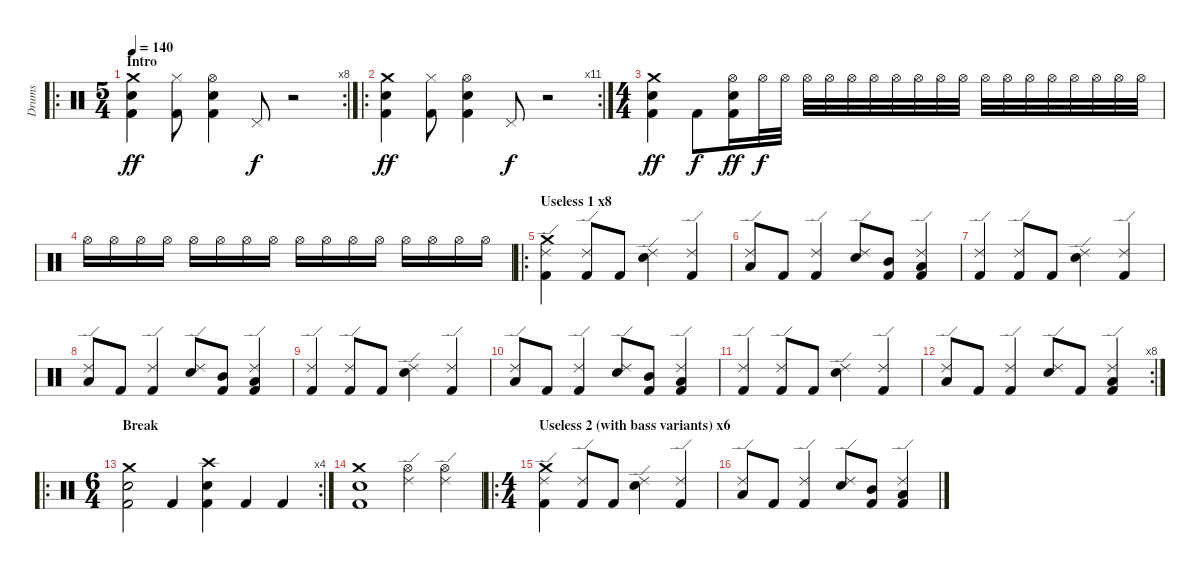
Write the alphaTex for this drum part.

\track ("Drums" "Drums") {instrument percussion}
\staff {score}
\articulation defaults
\ro
\rc 8
\ts (5 4)
\section ("" "Intro")
\tempo 140
\clef neutral
\ks c
("Crash medium (hit)" "Snare (hit) 2" "Kick (hit) 2").4{dy ff} ("Hi-Hat (closed)" "Kick (hit) 2").8 ("Hi-Hat (open)" "Snare (hit) 2" "Kick (hit) 2").4 "Pedal Hi-Hat (hit)".8{dy f} r.2 |
\ro
\rc 11
("Crash medium (hit)" "Snare (hit) 2" "Kick (hit) 2").4{dy ff} ("Hi-Hat (closed)" "Kick (hit) 2").8 ("Hi-Hat (open)" "Snare (hit) 2" "Kick (hit) 2").4 "Pedal Hi-Hat (hit)".8{dy f} r.2 |
\ts (4 4)
("Crash medium (hit)" "Snare (hit) 2" "Kick (hit) 2").4{dy ff} "Kick (hit) 2".8{dy f} ("Hi-Hat (open)" "Snare (hit) 2" "Kick (hit) 2").16{dy ff} "Hi-Hat (open)".32{dy f} "Hi-Hat (open)".32 "Hi-Hat (open)".32 "Hi-Hat (open)".32 "Hi-Hat (open)".32 "Hi-Hat (open)".32 "Hi-Hat (open)".32 "Hi-Hat (open)".32 "Hi-Hat (open)".32 "Hi-Hat (open)".32 "Hi-Hat (open)".32 "Hi-Hat (open)".32 "Hi-Hat (open)".32 "Hi-Hat (open)".32 "Hi-Hat (open)".32 "Hi-Hat (open)".32 "Hi-Hat (open)".32 "Hi-Hat (open)".32 |
"Hi-Hat (open)".16 "Hi-Hat (open)".16 "Hi-Hat (open)".16 "Hi-Hat (open)".16 "Hi-Hat (open)".16 "Hi-Hat (open)".16 "Hi-Hat (open)".16 "Hi-Hat (open)".16 "Hi-Hat (open)".16 "Hi-Hat (open)".16 "Hi-Hat (open)".16 "Hi-Hat (open)".16 "Hi-Hat (open)".16 "Hi-Hat (open)".16 "Hi-Hat (open)".16 "Hi-Hat (open)".16 |
\ro
\section ("" "Useless 1 x8")
("Ride (edge) 2" "Crash medium (hit)" "Kick (hit) 2").4 ("Ride (edge) 2" "Kick (hit) 2").8 "Kick (hit) 2".8 ("Ride (edge) 2" "Snare (hit) 2").4 ("Ride (edge) 2" "Kick (hit) 2").4 |
("Ride (edge) 2" "Low Tom (hit)").8 "Kick (hit) 2".8 ("Ride (edge) 2" "Kick (hit) 2").4 ("Ride (edge) 2" "Snare (hit) 2").8 ("Mid Tom (hit)" "Kick (hit) 2").8 ("Ride (edge) 2" "Low Tom (hit)" "Kick (hit) 2").4 |
("Ride (edge) 2" "Kick (hit) 2").4 ("Ride (edge) 2" "Kick (hit) 2").8 "Kick (hit) 2".8 ("Ride (edge) 2" "Snare (hit) 2").4 ("Ride (edge) 2" "Kick (hit) 2").4 |
("Ride (edge) 2" "Low Tom (hit)").8 "Kick (hit) 2".8 ("Ride (edge) 2" "Kick (hit) 2").4 ("Ride (edge) 2" "Snare (hit) 2").8 ("Mid Tom (hit)" "Kick (hit) 2").8 ("Ride (edge) 2" "Low Tom (hit)" "Kick (hit) 2").4 |
("Ride (edge) 2" "Kick (hit) 2").4 ("Ride (edge) 2" "Kick (hit) 2").8 "Kick (hit) 2".8 ("Ride (edge) 2" "Snare (hit) 2").4 ("Ride (edge) 2" "Kick (hit) 2").4 |
("Ride (edge) 2" "Low Tom (hit)").8 "Kick (hit) 2".8 ("Ride (edge) 2" "Kick (hit) 2").4 ("Ride (edge) 2" "Snare (hit) 2").8 ("Mid Tom (hit)" "Kick (hit) 2").8 ("Ride (edge) 2" "Low Tom (hit)" "Kick (hit) 2").4 |
("Ride (edge) 2" "Kick (hit) 2").4 ("Ride (edge) 2" "Kick (hit) 2").8 "Kick (hit) 2".8 ("Ride (edge) 2" "Snare (hit) 2").4 ("Ride (edge) 2" "Kick (hit) 2").4 |
\rc 8
("Ride (edge) 2" "Low Tom (hit)").8 "Kick (hit) 2".8 ("Ride (edge) 2" "Kick (hit) 2").4 ("Ride (edge) 2" "Snare (hit) 2").8 "Kick (hit) 2".8 ("Ride (edge) 2" "Low Tom (hit)" "Kick (hit) 2").4 |
\ro
\rc 4
\ts (6 4)
\section ("" "Break")
("Crash medium (hit)" "Snare (hit) 2" "Kick (hit) 2").2 "Kick (hit) 2".4 ("Crash high (hit)" "Snare (hit) 2" "Kick (hit) 2").4 "Kick (hit) 2".4 "Kick (hit) 2".4 |
("Crash medium (hit)" "Snare (hit) 2" "Kick (hit) 2").1 ("Ride (edge) 2" "Hi-Hat (open)").4 ("Ride (edge) 2" "Hi-Hat (open)").4 |
\ro
\ts (4 4)
\section ("" "Useless 2 (with bass variants) x6")
("Ride (edge) 2" "Crash medium (hit)" "Kick (hit) 2").4 ("Ride (edge) 2" "Kick (hit) 2").8 "Kick (hit) 2".8 ("Ride (edge) 2" "Snare (hit) 2").4 ("Ride (edge) 2" "Kick (hit) 2").4 |
("Ride (edge) 2" "Low Tom (hit)").8 "Kick (hit) 2".8 ("Ride (edge) 2" "Kick (hit) 2").4 ("Ride (edge) 2" "Snare (hit) 2").8 ("Mid Tom (hit)" "Kick (hit) 2").8 ("Ride (edge) 2" "Low Tom (hit)" "Kick (hit) 2").4
